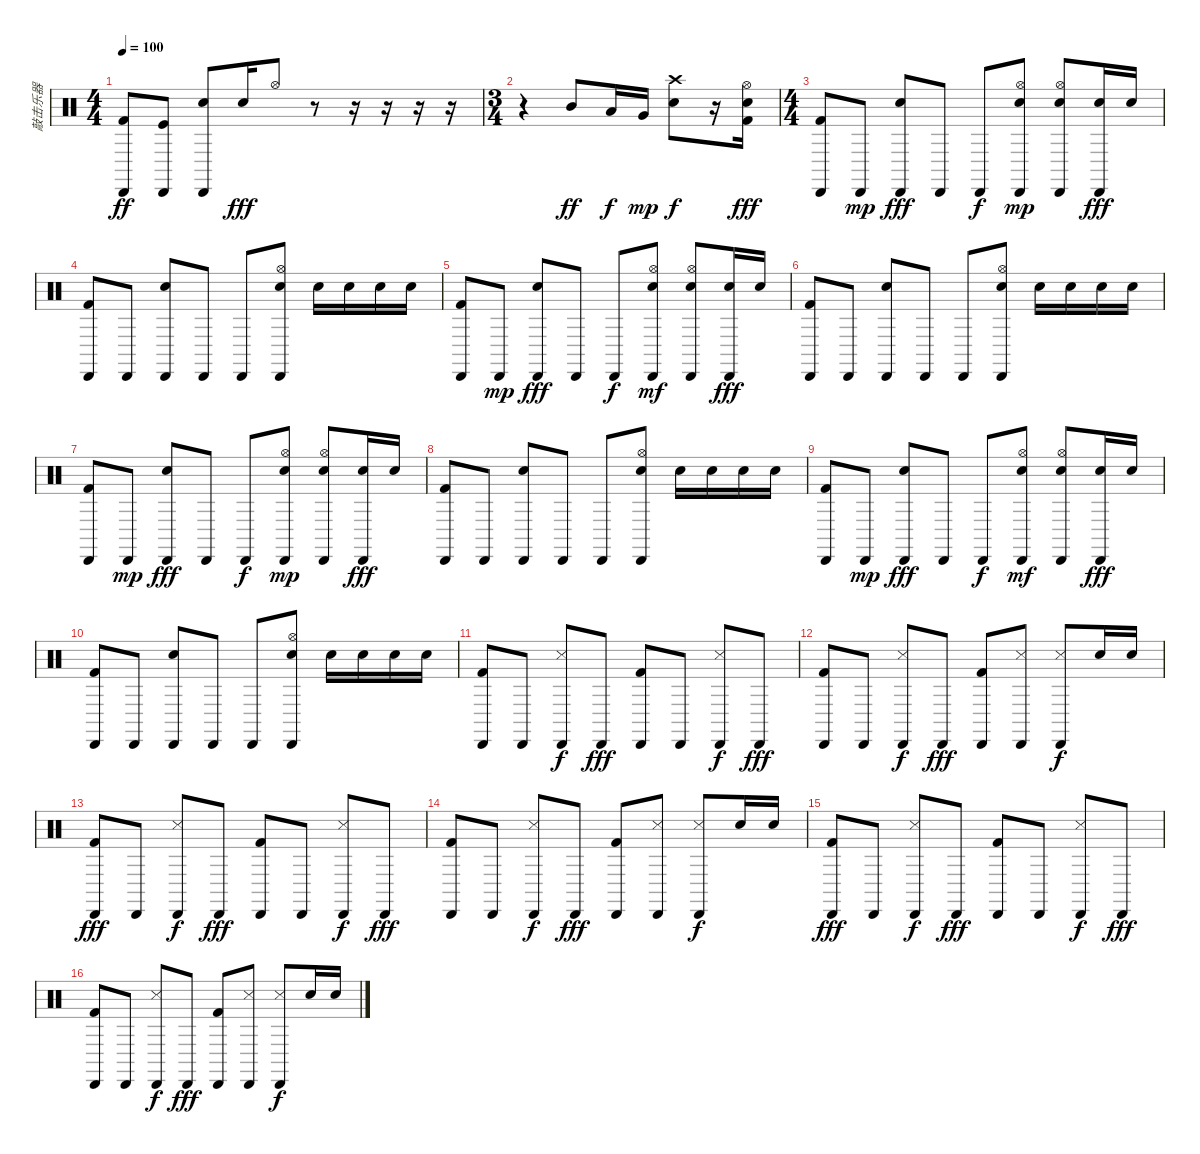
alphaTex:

\track ("敲击乐器" "敲击乐器") {instrument percussion}
\staff {score}
\articulation defaults
\ts (4 4)
\tempo 100
\clef neutral
\ks c
("Cabasa (hit)" "Kick (hit) 2").8{dy ff} ("Cabasa (hit)" "Kick (hit)").8 ("Cabasa (hit)" "Snare (hit) 2").8 "Snare (hit) 2".16{dy fff} "Hi-Hat (open)".8 r.8 r.16 r.16 r.16 r.16 |
\ts (3 4)
r.4 "Mid Tom (hit)".8{dy ff} "Low Tom (hit)".16{dy f} "Very Low Tom (hit)".16{dy mp} ("Crash high (hit)" "Snare (hit) 2").8{dy f} r.16 ("Snare (hit) 2" "Kick (hit) 2" "Hi-Hat (open)").16{dy fff} |
\ts (4 4)
("Kick (hit) 2" "Cabasa (hit)").8 "Cabasa (hit)".8{dy mp} ("Cabasa (hit)" "Snare (hit) 2").8{dy fff} "Cabasa (hit)".8 "Cabasa (hit)".8{dy f} ("Cabasa (hit)" "Snare (hit) 2" "Hi-Hat (open)").8{dy mp} ("Cabasa (hit)" "Snare (hit) 2" "Hi-Hat (open)").8 ("Cabasa (hit)" "Snare (hit) 2").16{dy fff} "Snare (hit) 2".16 |
("Kick (hit) 2" "Cabasa (hit)").8 "Cabasa (hit)".8 ("Cabasa (hit)" "Snare (hit) 2").8 "Cabasa (hit)".8 "Cabasa (hit)".8 ("Cabasa (hit)" "Snare (hit) 2" "Hi-Hat (open)").8 "Snare (hit) 2".16 "Snare (hit) 2".16 "Snare (hit) 2".16 "Snare (hit) 2".16 |
("Kick (hit) 2" "Cabasa (hit)").8 "Cabasa (hit)".8{dy mp} ("Cabasa (hit)" "Snare (hit) 2").8{dy fff} "Cabasa (hit)".8 "Cabasa (hit)".8{dy f} ("Cabasa (hit)" "Snare (hit) 2" "Hi-Hat (open)").8{dy mf} ("Cabasa (hit)" "Snare (hit) 2" "Hi-Hat (open)").8 ("Cabasa (hit)" "Snare (hit) 2").16{dy fff} "Snare (hit) 2".16 |
("Kick (hit) 2" "Cabasa (hit)").8 "Cabasa (hit)".8 ("Cabasa (hit)" "Snare (hit) 2").8 "Cabasa (hit)".8 "Cabasa (hit)".8 ("Cabasa (hit)" "Snare (hit) 2" "Hi-Hat (open)").8 "Snare (hit) 2".16 "Snare (hit) 2".16 "Snare (hit) 2".16 "Snare (hit) 2".16 |
("Kick (hit) 2" "Cabasa (hit)").8 "Cabasa (hit)".8{dy mp} ("Cabasa (hit)" "Snare (hit) 2").8{dy fff} "Cabasa (hit)".8 "Cabasa (hit)".8{dy f} ("Cabasa (hit)" "Snare (hit) 2" "Hi-Hat (open)").8{dy mp} ("Cabasa (hit)" "Snare (hit) 2" "Hi-Hat (open)").8 ("Cabasa (hit)" "Snare (hit) 2").16{dy fff} "Snare (hit) 2".16 |
("Kick (hit) 2" "Cabasa (hit)").8 "Cabasa (hit)".8 ("Cabasa (hit)" "Snare (hit) 2").8 "Cabasa (hit)".8 "Cabasa (hit)".8 ("Cabasa (hit)" "Snare (hit) 2" "Hi-Hat (open)").8 "Snare (hit) 2".16 "Snare (hit) 2".16 "Snare (hit) 2".16 "Snare (hit) 2".16 |
("Kick (hit) 2" "Cabasa (hit)").8 "Cabasa (hit)".8{dy mp} ("Cabasa (hit)" "Snare (hit) 2").8{dy fff} "Cabasa (hit)".8 "Cabasa (hit)".8{dy f} ("Cabasa (hit)" "Snare (hit) 2" "Hi-Hat (open)").8{dy mf} ("Cabasa (hit)" "Snare (hit) 2" "Hi-Hat (open)").8 ("Cabasa (hit)" "Snare (hit) 2").16{dy fff} "Snare (hit) 2".16 |
("Kick (hit) 2" "Cabasa (hit)").8 "Cabasa (hit)".8 ("Cabasa (hit)" "Snare (hit) 2").8 "Cabasa (hit)".8 "Cabasa (hit)".8 ("Cabasa (hit)" "Snare (hit) 2" "Hi-Hat (open)").8 "Snare (hit) 2".16 "Snare (hit) 2".16 "Snare (hit) 2".16 "Snare (hit) 2".16 |
("Cabasa (hit)" "Kick (hit) 2").8 "Cabasa (hit)".8 ("Cabasa (hit)" "Snare (side stick) 3").8{dy f} "Cabasa (hit)".8{dy fff} ("Cabasa (hit)" "Kick (hit) 2").8 "Cabasa (hit)".8 ("Cabasa (hit)" "Snare (side stick) 3").8{dy f} "Cabasa (hit)".8{dy fff} |
("Cabasa (hit)" "Kick (hit) 2").8 "Cabasa (hit)".8 ("Cabasa (hit)" "Snare (side stick) 3").8{dy f} "Cabasa (hit)".8{dy fff} ("Cabasa (hit)" "Kick (hit) 2").8 ("Cabasa (hit)" "Snare (side stick) 3").8 ("Cabasa (hit)" "Snare (side stick) 3").8{dy f} "Electric Snare (hit)".16 "Snare (hit) 2".16 |
("Cabasa (hit)" "Kick (hit) 2").8{dy fff} "Cabasa (hit)".8 ("Cabasa (hit)" "Snare (side stick) 3").8{dy f} "Cabasa (hit)".8{dy fff} ("Cabasa (hit)" "Kick (hit) 2").8 "Cabasa (hit)".8 ("Cabasa (hit)" "Snare (side stick) 3").8{dy f} "Cabasa (hit)".8{dy fff} |
("Cabasa (hit)" "Kick (hit) 2").8 "Cabasa (hit)".8 ("Cabasa (hit)" "Snare (side stick) 3").8{dy f} "Cabasa (hit)".8{dy fff} ("Cabasa (hit)" "Kick (hit) 2").8 ("Cabasa (hit)" "Snare (side stick) 3").8 ("Cabasa (hit)" "Snare (side stick) 3").8{dy f} "Electric Snare (hit)".16 "Snare (hit) 2".16 |
("Cabasa (hit)" "Kick (hit) 2").8{dy fff} "Cabasa (hit)".8 ("Cabasa (hit)" "Snare (side stick) 3").8{dy f} "Cabasa (hit)".8{dy fff} ("Cabasa (hit)" "Kick (hit) 2").8 "Cabasa (hit)".8 ("Cabasa (hit)" "Snare (side stick) 3").8{dy f} "Cabasa (hit)".8{dy fff} |
("Cabasa (hit)" "Kick (hit) 2").8 "Cabasa (hit)".8 ("Cabasa (hit)" "Snare (side stick) 3").8{dy f} "Cabasa (hit)".8{dy fff} ("Cabasa (hit)" "Kick (hit) 2").8 ("Cabasa (hit)" "Snare (side stick) 3").8 ("Cabasa (hit)" "Snare (side stick) 3").8{dy f} "Electric Snare (hit)".16 "Snare (hit) 2".16
